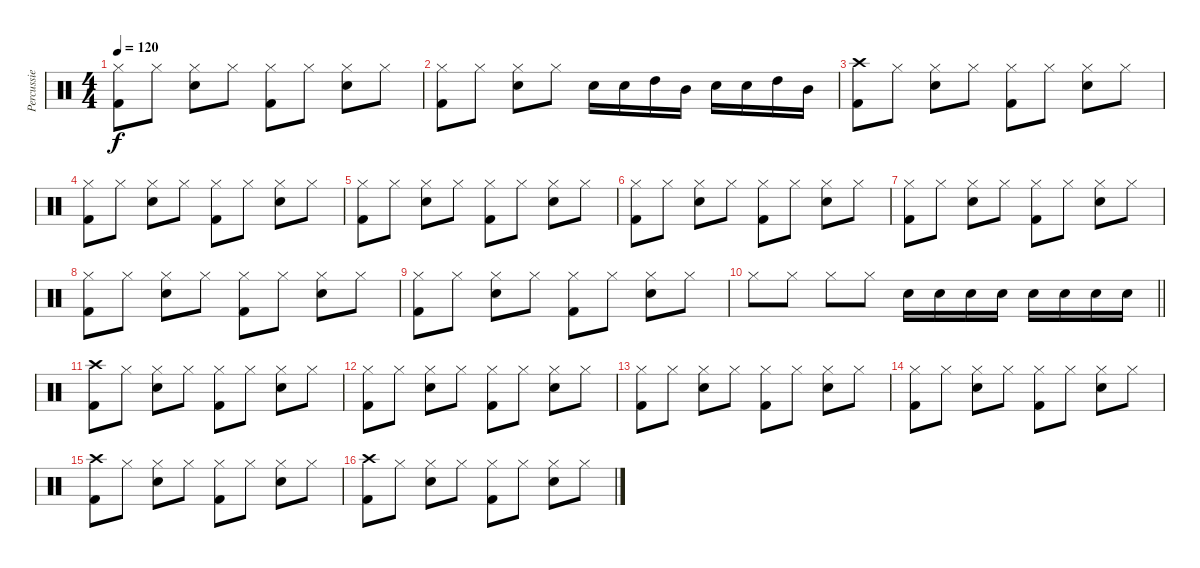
\track ("Percussie" "Percussie") {instrument percussion}
\staff {score}
\articulation defaults
\ts (4 4)
\tempo 120
\clef neutral
\ks c
("Hi-Hat (closed)" "Kick (hit) 2").8{dy f} "Hi-Hat (closed)".8 ("Hi-Hat (closed)" "Electric Snare (hit)").8 "Hi-Hat (closed)".8 ("Hi-Hat (closed)" "Kick (hit) 2").8 "Hi-Hat (closed)".8 ("Hi-Hat (closed)" "Electric Snare (hit)").8 "Hi-Hat (closed)".8 |
("Hi-Hat (closed)" "Kick (hit) 2").8 "Hi-Hat (closed)".8 ("Hi-Hat (closed)" "Electric Snare (hit)").8 "Hi-Hat (closed)".8 "Electric Snare (hit)".16 "Electric Snare (hit)".16 "High Tom (hit)".16 "Mid Tom (hit)".16 "Electric Snare (hit)".16 "Electric Snare (hit)".16 "High Tom (hit)".16 "Mid Tom (hit)".16 |
("Crash high (hit)" "Kick (hit) 2").8 "Hi-Hat (closed)".8 ("Hi-Hat (closed)" "Electric Snare (hit)").8 "Hi-Hat (closed)".8 ("Hi-Hat (closed)" "Kick (hit) 2").8 "Hi-Hat (closed)".8 ("Hi-Hat (closed)" "Electric Snare (hit)").8 "Hi-Hat (closed)".8 |
("Hi-Hat (closed)" "Kick (hit) 2").8 "Hi-Hat (closed)".8 ("Hi-Hat (closed)" "Electric Snare (hit)").8 "Hi-Hat (closed)".8 ("Hi-Hat (closed)" "Kick (hit) 2").8 "Hi-Hat (closed)".8 ("Hi-Hat (closed)" "Electric Snare (hit)").8 "Hi-Hat (closed)".8 |
("Hi-Hat (closed)" "Kick (hit) 2").8 "Hi-Hat (closed)".8 ("Hi-Hat (closed)" "Electric Snare (hit)").8 "Hi-Hat (closed)".8 ("Hi-Hat (closed)" "Kick (hit) 2").8 "Hi-Hat (closed)".8 ("Hi-Hat (closed)" "Electric Snare (hit)").8 "Hi-Hat (closed)".8 |
("Hi-Hat (closed)" "Kick (hit) 2").8 "Hi-Hat (closed)".8 ("Hi-Hat (closed)" "Electric Snare (hit)").8 "Hi-Hat (closed)".8 ("Hi-Hat (closed)" "Kick (hit) 2").8 "Hi-Hat (closed)".8 ("Hi-Hat (closed)" "Electric Snare (hit)").8 "Hi-Hat (closed)".8 |
("Hi-Hat (closed)" "Kick (hit) 2").8 "Hi-Hat (closed)".8 ("Hi-Hat (closed)" "Electric Snare (hit)").8 "Hi-Hat (closed)".8 ("Hi-Hat (closed)" "Kick (hit) 2").8 "Hi-Hat (closed)".8 ("Hi-Hat (closed)" "Electric Snare (hit)").8 "Hi-Hat (closed)".8 |
("Hi-Hat (closed)" "Kick (hit) 2").8 "Hi-Hat (closed)".8 ("Hi-Hat (closed)" "Electric Snare (hit)").8 "Hi-Hat (closed)".8 ("Hi-Hat (closed)" "Kick (hit) 2").8 "Hi-Hat (closed)".8 ("Hi-Hat (closed)" "Electric Snare (hit)").8 "Hi-Hat (closed)".8 |
("Hi-Hat (closed)" "Kick (hit) 2").8 "Hi-Hat (closed)".8 ("Hi-Hat (closed)" "Electric Snare (hit)").8 "Hi-Hat (closed)".8 ("Hi-Hat (closed)" "Kick (hit) 2").8 "Hi-Hat (closed)".8 ("Hi-Hat (closed)" "Electric Snare (hit)").8 "Hi-Hat (closed)".8 |
\barLineRight lightlight "Hi-Hat (closed)".8 "Hi-Hat (closed)".8 "Hi-Hat (closed)".8 "Hi-Hat (closed)".8 "Electric Snare (hit)".16 "Electric Snare (hit)".16 "Electric Snare (hit)".16 "Electric Snare (hit)".16 "Electric Snare (hit)".16 "Electric Snare (hit)".16 "Electric Snare (hit)".16 "Electric Snare (hit)".16
|
("Crash high (hit)" "Kick (hit) 2").8 "Hi-Hat (closed)".8 ("Hi-Hat (closed)" "Electric Snare (hit)").8 "Hi-Hat (closed)".8 ("Hi-Hat (closed)" "Kick (hit) 2").8 "Hi-Hat (closed)".8 ("Hi-Hat (closed)" "Electric Snare (hit)").8 "Hi-Hat (closed)".8 |
("Hi-Hat (closed)" "Kick (hit) 2").8 "Hi-Hat (closed)".8 ("Hi-Hat (closed)" "Electric Snare (hit)").8 "Hi-Hat (closed)".8 ("Hi-Hat (closed)" "Kick (hit) 2").8 "Hi-Hat (closed)".8 ("Hi-Hat (closed)" "Electric Snare (hit)").8 "Hi-Hat (closed)".8 |
("Hi-Hat (closed)" "Kick (hit) 2").8 "Hi-Hat (closed)".8 ("Hi-Hat (closed)" "Electric Snare (hit)").8 "Hi-Hat (closed)".8 ("Hi-Hat (closed)" "Kick (hit) 2").8 "Hi-Hat (closed)".8 ("Hi-Hat (closed)" "Electric Snare (hit)").8 "Hi-Hat (closed)".8 |
("Hi-Hat (closed)" "Kick (hit) 2").8 "Hi-Hat (closed)".8 ("Hi-Hat (closed)" "Electric Snare (hit)").8 "Hi-Hat (closed)".8 ("Hi-Hat (closed)" "Kick (hit) 2").8 "Hi-Hat (closed)".8 ("Hi-Hat (closed)" "Electric Snare (hit)").8 "Hi-Hat (closed)".8 |
("Crash high (hit)" "Kick (hit) 2").8 "Hi-Hat (closed)".8 ("Hi-Hat (closed)" "Electric Snare (hit)").8 "Hi-Hat (closed)".8 ("Hi-Hat (closed)" "Kick (hit) 2").8 "Hi-Hat (closed)".8 ("Hi-Hat (closed)" "Electric Snare (hit)").8 "Hi-Hat (closed)".8 |
("Crash high (hit)" "Kick (hit) 2").8 "Hi-Hat (closed)".8 ("Hi-Hat (closed)" "Electric Snare (hit)").8 "Hi-Hat (closed)".8 ("Hi-Hat (closed)" "Kick (hit) 2").8 "Hi-Hat (closed)".8 ("Hi-Hat (closed)" "Electric Snare (hit)").8 "Hi-Hat (closed)".8
